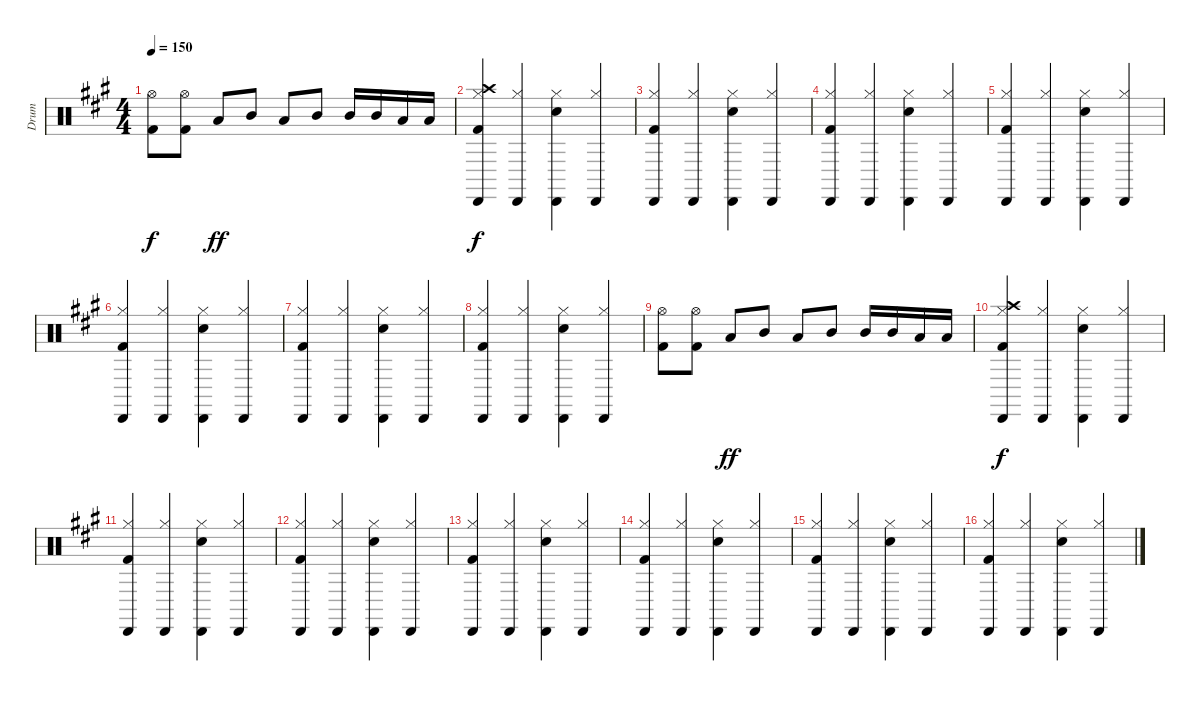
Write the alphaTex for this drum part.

\track ("Drum " "Drum ") {instrument percussion}
\staff {score}
\articulation defaults
\ts (4 4)
\tempo 150
\clef neutral
\ks a
("Hi-Hat (open)" "Kick (hit) 2").8{dy f} ("Hi-Hat (open)" "Kick (hit) 2").8 "Low Tom (hit)".8{dy ff} "Mid Tom (hit)".8 "Low Tom (hit)".8 "Mid Tom (hit)".8 "Mid Tom (hit)".16 "Mid Tom (hit)".16 "Low Tom (hit)".16 "Low Tom (hit)".16 |
("Hi-Hat (closed)" "Crash high (hit)" "Cabasa (hit)" "Kick (hit) 2").4{dy f} ("Hi-Hat (closed)" "Cabasa (hit)").4 ("Hi-Hat (closed)" "Snare (hit) 2" "Cabasa (hit)").4 ("Hi-Hat (closed)" "Cabasa (hit)").4 |
("Hi-Hat (closed)" "Cabasa (hit)" "Kick (hit) 2").4 ("Hi-Hat (closed)" "Cabasa (hit)").4 ("Hi-Hat (closed)" "Snare (hit) 2" "Cabasa (hit)").4 ("Hi-Hat (closed)" "Cabasa (hit)").4 |
("Hi-Hat (closed)" "Cabasa (hit)" "Kick (hit) 2").4 ("Hi-Hat (closed)" "Cabasa (hit)").4 ("Hi-Hat (closed)" "Snare (hit) 2" "Cabasa (hit)").4 ("Hi-Hat (closed)" "Cabasa (hit)").4 |
("Hi-Hat (closed)" "Cabasa (hit)" "Kick (hit) 2").4 ("Hi-Hat (closed)" "Cabasa (hit)").4 ("Hi-Hat (closed)" "Snare (hit) 2" "Cabasa (hit)").4 ("Hi-Hat (closed)" "Cabasa (hit)").4 |
("Hi-Hat (closed)" "Cabasa (hit)" "Kick (hit) 2").4 ("Hi-Hat (closed)" "Cabasa (hit)").4 ("Hi-Hat (closed)" "Snare (hit) 2" "Cabasa (hit)").4 ("Hi-Hat (closed)" "Cabasa (hit)").4 |
("Hi-Hat (closed)" "Cabasa (hit)" "Kick (hit) 2").4 ("Hi-Hat (closed)" "Cabasa (hit)").4 ("Hi-Hat (closed)" "Snare (hit) 2" "Cabasa (hit)").4 ("Hi-Hat (closed)" "Cabasa (hit)").4 |
("Hi-Hat (closed)" "Cabasa (hit)" "Kick (hit) 2").4 ("Hi-Hat (closed)" "Cabasa (hit)").4 ("Hi-Hat (closed)" "Snare (hit) 2" "Cabasa (hit)").4 ("Hi-Hat (closed)" "Cabasa (hit)").4 |
("Hi-Hat (open)" "Kick (hit) 2").8 ("Hi-Hat (open)" "Kick (hit) 2").8 "Low Tom (hit)".8{dy ff} "Mid Tom (hit)".8 "Low Tom (hit)".8 "Mid Tom (hit)".8 "Mid Tom (hit)".16 "Mid Tom (hit)".16 "Low Tom (hit)".16 "Low Tom (hit)".16 |
("Hi-Hat (closed)" "Crash high (hit)" "Cabasa (hit)" "Kick (hit) 2").4{dy f} ("Hi-Hat (closed)" "Cabasa (hit)").4 ("Hi-Hat (closed)" "Snare (hit) 2" "Cabasa (hit)").4 ("Hi-Hat (closed)" "Cabasa (hit)").4 |
("Hi-Hat (closed)" "Cabasa (hit)" "Kick (hit) 2").4 ("Hi-Hat (closed)" "Cabasa (hit)").4 ("Hi-Hat (closed)" "Snare (hit) 2" "Cabasa (hit)").4 ("Hi-Hat (closed)" "Cabasa (hit)").4 |
("Hi-Hat (closed)" "Cabasa (hit)" "Kick (hit) 2").4 ("Hi-Hat (closed)" "Cabasa (hit)").4 ("Hi-Hat (closed)" "Snare (hit) 2" "Cabasa (hit)").4 ("Hi-Hat (closed)" "Cabasa (hit)").4 |
("Hi-Hat (closed)" "Cabasa (hit)" "Kick (hit) 2").4 ("Hi-Hat (closed)" "Cabasa (hit)").4 ("Hi-Hat (closed)" "Snare (hit) 2" "Cabasa (hit)").4 ("Hi-Hat (closed)" "Cabasa (hit)").4 |
("Hi-Hat (closed)" "Cabasa (hit)" "Kick (hit) 2").4 ("Hi-Hat (closed)" "Cabasa (hit)").4 ("Hi-Hat (closed)" "Snare (hit) 2" "Cabasa (hit)").4 ("Hi-Hat (closed)" "Cabasa (hit)").4 |
("Hi-Hat (closed)" "Cabasa (hit)" "Kick (hit) 2").4 ("Hi-Hat (closed)" "Cabasa (hit)").4 ("Hi-Hat (closed)" "Snare (hit) 2" "Cabasa (hit)").4 ("Hi-Hat (closed)" "Cabasa (hit)").4 |
("Hi-Hat (closed)" "Cabasa (hit)" "Kick (hit) 2").4 ("Hi-Hat (closed)" "Cabasa (hit)").4 ("Hi-Hat (closed)" "Snare (hit) 2" "Cabasa (hit)").4 ("Hi-Hat (closed)" "Cabasa (hit)").4
